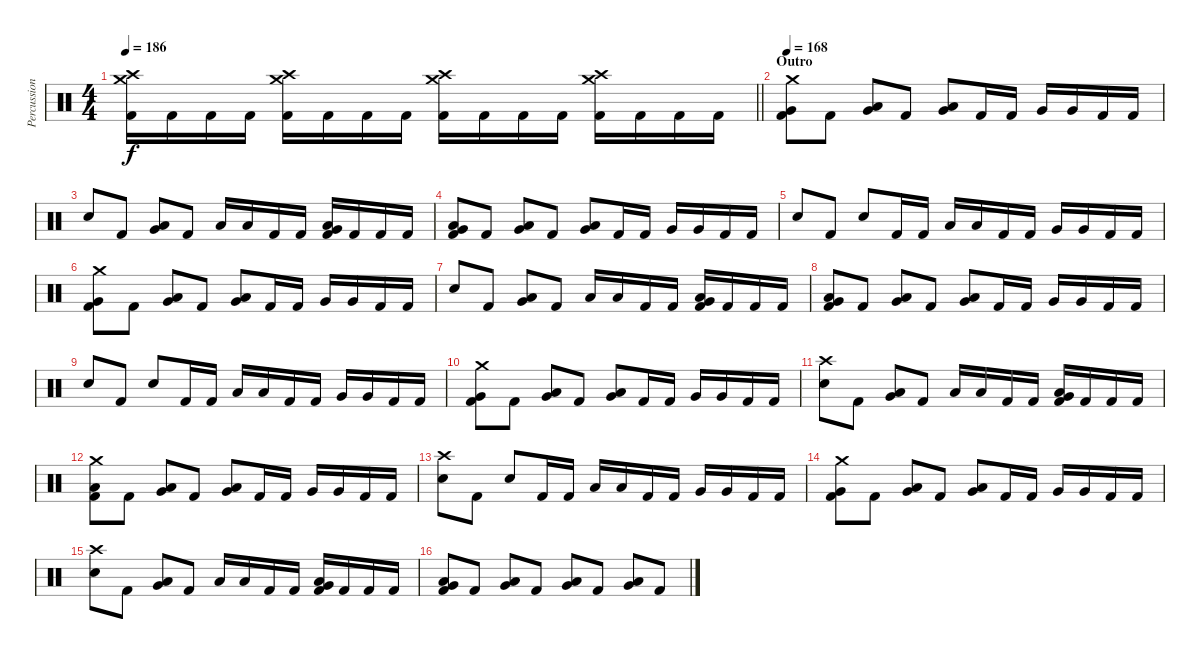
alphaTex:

\track ("Percussion" "Percussion") {instrument percussion}
\staff {score}
\articulation defaults
\ts (4 4)
\tempo 186
\clef neutral
\barLineRight lightlight
\ks c
("Crash medium (hit)" "Crash high (hit)" "Kick (hit) 2").16{dy f} "Kick (hit) 2".16 "Kick (hit) 2".16 "Kick (hit) 2".16 ("Crash medium (hit)" "Crash high (hit)" "Kick (hit) 2").16 "Kick (hit) 2".16 "Kick (hit) 2".16 "Kick (hit) 2".16 ("Crash medium (hit)" "Crash high (hit)" "Kick (hit) 2").16 "Kick (hit) 2".16 "Kick (hit) 2".16 "Kick (hit) 2".16 ("Crash medium (hit)" "Crash high (hit)" "Kick (hit) 2").16 "Kick (hit) 2".16 "Kick (hit) 2".16 "Kick (hit) 2".16 |
\section ("" "Outro")
\tempo 168
("Crash medium (hit)" "Very Low Tom (hit)" "Kick (hit) 2").8 "Kick (hit) 2".8 ("Very Low Tom (hit)" "Low Floor Tom (hit)").8 "Kick (hit) 2".8 ("Very Low Tom (hit)" "Low Floor Tom (hit)").8 "Kick (hit) 2".16 "Kick (hit) 2".16 "Very Low Tom (hit)".16 "Very Low Tom (hit)".16 "Kick (hit) 2".16 "Kick (hit) 2".16 |
"Electric Snare (hit)".8 "Kick (hit) 2".8 ("Very Low Tom (hit)" "Low Floor Tom (hit)").8 "Kick (hit) 2".8 "Low Tom (hit)".16 "Low Tom (hit)".16 "Kick (hit) 2".16 "Kick (hit) 2".16 ("Very Low Tom (hit)" "Low Floor Tom (hit)" "Kick (hit) 2").16 "Kick (hit) 2".16 "Kick (hit) 2".16 "Kick (hit) 2".16 |
("Very Low Tom (hit)" "Low Floor Tom (hit)" "Kick (hit) 2").8 "Kick (hit) 2".8 ("Very Low Tom (hit)" "Low Floor Tom (hit)").8 "Kick (hit) 2".8 ("Very Low Tom (hit)" "Low Floor Tom (hit)").8 "Kick (hit) 2".16 "Kick (hit) 2".16 "Very Low Tom (hit)".16 "Very Low Tom (hit)".16 "Kick (hit) 2".16 "Kick (hit) 2".16 |
"Electric Snare (hit)".8 "Kick (hit) 2".8 "Electric Snare (hit)".8 "Kick (hit) 2".16 "Kick (hit) 2".16 "Low Tom (hit)".16 "Low Tom (hit)".16 "Kick (hit) 2".16 "Kick (hit) 2".16 "Very Low Tom (hit)".16 "Very Low Tom (hit)".16 "Kick (hit) 2".16 "Kick (hit) 2".16 |
("Crash medium (hit)" "Very Low Tom (hit)" "Kick (hit) 2").8 "Kick (hit) 2".8 ("Very Low Tom (hit)" "Low Floor Tom (hit)").8 "Kick (hit) 2".8 ("Very Low Tom (hit)" "Low Floor Tom (hit)").8 "Kick (hit) 2".16 "Kick (hit) 2".16 "Very Low Tom (hit)".16 "Very Low Tom (hit)".16 "Kick (hit) 2".16 "Kick (hit) 2".16 |
"Electric Snare (hit)".8 "Kick (hit) 2".8 ("Very Low Tom (hit)" "Low Floor Tom (hit)").8 "Kick (hit) 2".8 "Low Tom (hit)".16 "Low Tom (hit)".16 "Kick (hit) 2".16 "Kick (hit) 2".16 ("Very Low Tom (hit)" "Low Floor Tom (hit)" "Kick (hit) 2").16 "Kick (hit) 2".16 "Kick (hit) 2".16 "Kick (hit) 2".16 |
("Very Low Tom (hit)" "Low Floor Tom (hit)" "Kick (hit) 2").8 "Kick (hit) 2".8 ("Very Low Tom (hit)" "Low Floor Tom (hit)").8 "Kick (hit) 2".8 ("Very Low Tom (hit)" "Low Floor Tom (hit)").8 "Kick (hit) 2".16 "Kick (hit) 2".16 "Very Low Tom (hit)".16 "Very Low Tom (hit)".16 "Kick (hit) 2".16 "Kick (hit) 2".16 |
"Electric Snare (hit)".8 "Kick (hit) 2".8 "Electric Snare (hit)".8 "Kick (hit) 2".16 "Kick (hit) 2".16 "Low Tom (hit)".16 "Low Tom (hit)".16 "Kick (hit) 2".16 "Kick (hit) 2".16 "Very Low Tom (hit)".16 "Very Low Tom (hit)".16 "Kick (hit) 2".16 "Kick (hit) 2".16 |
("Crash medium (hit)" "Very Low Tom (hit)" "Kick (hit) 2").8 "Kick (hit) 2".8 ("Very Low Tom (hit)" "Low Floor Tom (hit)").8 "Kick (hit) 2".8 ("Very Low Tom (hit)" "Low Floor Tom (hit)").8 "Kick (hit) 2".16 "Kick (hit) 2".16 "Very Low Tom (hit)".16 "Very Low Tom (hit)".16 "Kick (hit) 2".16 "Kick (hit) 2".16 |
("Crash high (hit)" "Electric Snare (hit)").8 "Kick (hit) 2".8 ("Very Low Tom (hit)" "Low Floor Tom (hit)").8 "Kick (hit) 2".8 "Low Tom (hit)".16 "Low Tom (hit)".16 "Kick (hit) 2".16 "Kick (hit) 2".16 ("Very Low Tom (hit)" "Low Floor Tom (hit)" "Kick (hit) 2").16 "Kick (hit) 2".16 "Kick (hit) 2".16 "Kick (hit) 2".16 |
("Crash medium (hit)" "Low Floor Tom (hit)" "Kick (hit) 2").8 "Kick (hit) 2".8 ("Very Low Tom (hit)" "Low Floor Tom (hit)").8 "Kick (hit) 2".8 ("Very Low Tom (hit)" "Low Floor Tom (hit)").8 "Kick (hit) 2".16 "Kick (hit) 2".16 "Very Low Tom (hit)".16 "Very Low Tom (hit)".16 "Kick (hit) 2".16 "Kick (hit) 2".16 |
("Crash high (hit)" "Electric Snare (hit)").8 "Kick (hit) 2".8 "Electric Snare (hit)".8 "Kick (hit) 2".16 "Kick (hit) 2".16 "Low Tom (hit)".16 "Low Tom (hit)".16 "Kick (hit) 2".16 "Kick (hit) 2".16 "Very Low Tom (hit)".16 "Very Low Tom (hit)".16 "Kick (hit) 2".16 "Kick (hit) 2".16 |
("Crash medium (hit)" "Very Low Tom (hit)" "Kick (hit) 2").8 "Kick (hit) 2".8 ("Very Low Tom (hit)" "Low Floor Tom (hit)").8 "Kick (hit) 2".8 ("Very Low Tom (hit)" "Low Floor Tom (hit)").8 "Kick (hit) 2".16 "Kick (hit) 2".16 "Very Low Tom (hit)".16 "Very Low Tom (hit)".16 "Kick (hit) 2".16 "Kick (hit) 2".16 |
("Crash high (hit)" "Electric Snare (hit)").8 "Kick (hit) 2".8 ("Very Low Tom (hit)" "Low Floor Tom (hit)").8 "Kick (hit) 2".8 "Low Tom (hit)".16 "Low Tom (hit)".16 "Kick (hit) 2".16 "Kick (hit) 2".16 ("Very Low Tom (hit)" "Low Floor Tom (hit)" "Kick (hit) 2").16 "Kick (hit) 2".16 "Kick (hit) 2".16 "Kick (hit) 2".16 |
("Very Low Tom (hit)" "Low Floor Tom (hit)" "Kick (hit) 2").8 "Kick (hit) 2".8 ("Very Low Tom (hit)" "Low Floor Tom (hit)").8 "Kick (hit) 2".8 ("Very Low Tom (hit)" "Low Floor Tom (hit)").8 "Kick (hit) 2".8 ("Very Low Tom (hit)" "Low Floor Tom (hit)").8 "Kick (hit) 2".8
